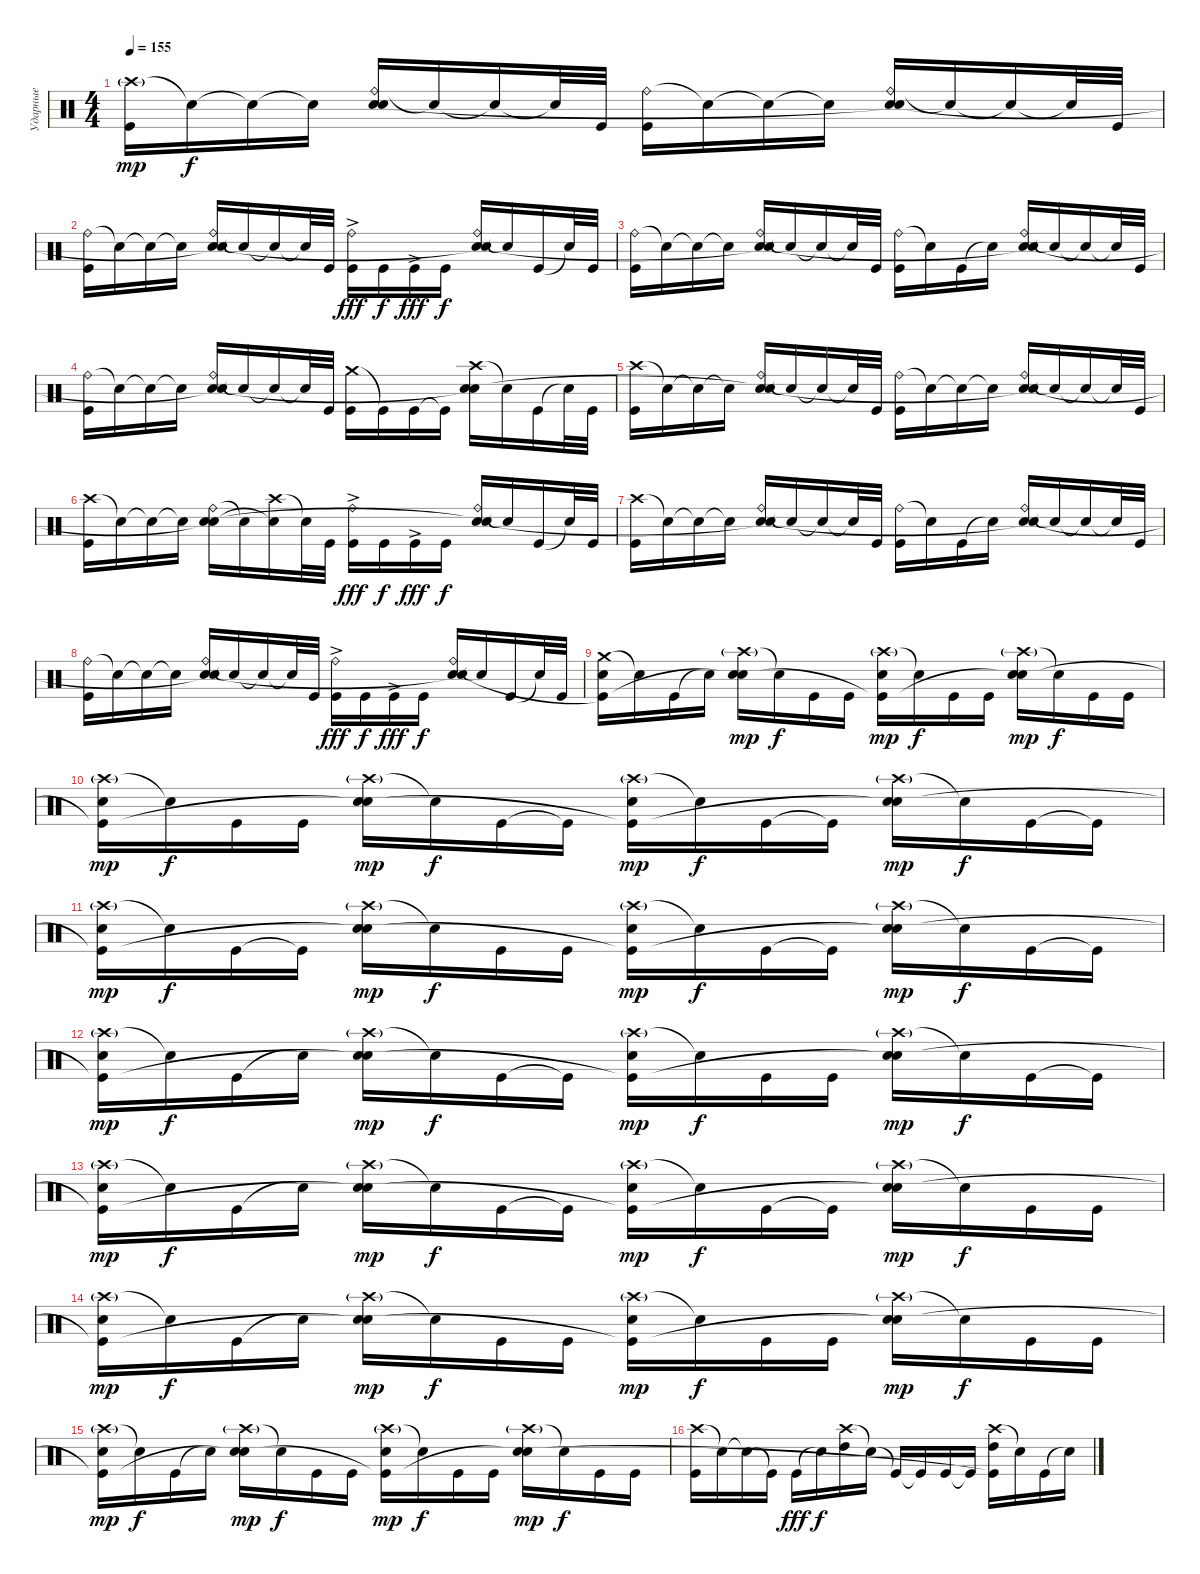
\track ("Ударные" "Ударные") {instrument percussion}
\staff {score}
\articulation defaults
\ts (4 4)
\tempo 155
\clef neutral
\ks c
("Crash high (hit)"{g} "Kick (hit)").16{dy mp} "Snare (hit)"{t}.16{dy f} "Snare (hit)"{t}.16 "Snare (hit)"{t}.16 ("Ride (bell)" "Electric Snare (hit)" "Snare (hit)"{t}).16 "Snare (hit)"{t}.16 "Snare (hit)"{t}.16 "Snare (hit)"{t}.32 "Kick (hit)".32 ("Ride (bell)" "Kick (hit)").16 "Snare (hit)"{t}.16 "Snare (hit)"{t}.16 "Snare (hit)"{t}.16 ("Ride (bell)" "Electric Snare (hit)" "Snare (hit)"{t}).16 "Snare (hit)"{t}.16 "Snare (hit)"{t}.16 "Snare (hit)"{t}.32 "Kick (hit)".32 |
("Ride (bell)" "Kick (hit)").16 "Snare (hit)"{t}.16 "Snare (hit)"{t}.16 "Snare (hit)"{t}.16 ("Ride (bell)" "Electric Snare (hit)" "Snare (hit)"{t}).16 "Snare (hit)"{t}.16 "Snare (hit)"{t}.16 "Snare (hit)"{t}.32 "Kick (hit)".32 ("Ride (bell)" "Kick (hit)"{ac}).16{dy fff} "Kick (hit)".16{dy f} "Kick (hit)"{ac}.16{dy fff} "Kick (hit)".16{dy f} ("Ride (bell)" "Electric Snare (hit)" "Snare (hit)"{t}).16 "Snare (hit)"{t}.16 "Kick (hit)".16 "Snare (hit)"{t}.32 "Kick (hit)".32 |
("Ride (bell)" "Kick (hit)").16 "Snare (hit)"{t}.16 "Snare (hit)"{t}.16 "Snare (hit)"{t}.16 ("Ride (bell)" "Electric Snare (hit)" "Snare (hit)"{t}).16 "Snare (hit)"{t}.16 "Snare (hit)"{t}.16 "Snare (hit)"{t}.32 "Kick (hit)".32 ("Ride (bell)" "Kick (hit)").16 "Snare (hit)"{t}.16 "Kick (hit)".16 "Snare (hit)"{t}.16 ("Ride (bell)" "Electric Snare (hit)" "Snare (hit)"{t}).16 "Snare (hit)"{t}.16 "Snare (hit)"{t}.16 "Snare (hit)"{t}.32 "Kick (hit)".32 |
("Ride (bell)" "Kick (hit)").16 "Snare (hit)"{t}.16 "Snare (hit)"{t}.16 "Snare (hit)"{t}.16 ("Ride (bell)" "Electric Snare (hit)" "Snare (hit)"{t}).16 "Snare (hit)"{t}.16 "Snare (hit)"{t}.16 "Snare (hit)"{t}.32 "Kick (hit)".32 ("Crash medium (hit)" "Kick (hit)").16 "Kick (hit)"{t}.16 "Kick (hit)".16 "Kick (hit)"{t}.16 ("Crash high (hit)" "Electric Snare (hit)" "Snare (hit)"{t}).16 "Snare (hit)"{t}.16 "Kick (hit)".16 "Snare (hit)"{t}.32 "Kick (hit)".32 |
("Crash high (hit)" "Kick (hit)").16 "Snare (hit)"{t}.16 "Snare (hit)"{t}.16 "Snare (hit)"{t}.16 ("Ride (bell)" "Electric Snare (hit)" "Snare (hit)"{t}).16 "Snare (hit)"{t}.16 "Snare (hit)"{t}.16 "Snare (hit)"{t}.32 "Kick (hit)".32 ("Ride (bell)" "Kick (hit)").16 "Snare (hit)"{t}.16 "Snare (hit)"{t}.16 "Snare (hit)"{t}.16 ("Ride (bell)" "Electric Snare (hit)" "Snare (hit)"{t}).16 "Snare (hit)"{t}.16 "Snare (hit)"{t}.16 "Snare (hit)"{t}.32 "Kick (hit)".32 |
("Crash high (hit)" "Kick (hit)").16 "Snare (hit)"{t}.16 "Snare (hit)"{t}.16 "Snare (hit)"{t}.16 ("Ride (bell)" "Electric Snare (hit)" "Snare (hit)"{t}).16 "Snare (hit)"{t}.16 ("Crash high (hit)" "Snare (hit)"{t}).16 "Snare (hit)"{t}.32 "Kick (hit)".32 ("Ride (bell)" "Kick (hit)"{ac}).16{dy fff} "Kick (hit)".16{dy f} "Kick (hit)"{ac}.16{dy fff} "Kick (hit)".16{dy f} ("Ride (bell)" "Electric Snare (hit)" "Snare (hit)"{t}).16 "Snare (hit)"{t}.16 "Kick (hit)".16 "Snare (hit)"{t}.32 "Kick (hit)".32 |
("Crash high (hit)" "Kick (hit)").16 "Snare (hit)"{t}.16 "Snare (hit)"{t}.16 "Snare (hit)"{t}.16 ("Ride (bell)" "Electric Snare (hit)" "Snare (hit)"{t}).16 "Snare (hit)"{t}.16 "Snare (hit)"{t}.16 "Snare (hit)"{t}.32 "Kick (hit)".32 ("Ride (bell)" "Kick (hit)").16 "Snare (hit)"{t}.16 "Kick (hit)".16 "Snare (hit)"{t}.16 ("Ride (bell)" "Electric Snare (hit)" "Snare (hit)"{t}).16 "Snare (hit)"{t}.16 "Snare (hit)"{t}.16 "Snare (hit)"{t}.32 "Kick (hit)".32 |
("Ride (bell)" "Kick (hit)").16 "Snare (hit)"{t}.16 "Snare (hit)"{t}.16 "Snare (hit)"{t}.16 ("Ride (bell)" "Electric Snare (hit)" "Snare (hit)"{t}).16 "Snare (hit)"{t}.16 "Snare (hit)"{t}.16 "Snare (hit)"{t}.32 "Kick (hit)".32 ("Ride (bell)" "Kick (hit)"{ac}).16{dy fff} "Kick (hit)".16{dy f} "Kick (hit)"{ac}.16{dy fff} "Kick (hit)".16{dy f} ("Ride (bell)" "Electric Snare (hit)" "Snare (hit)"{t}).16 "Snare (hit)"{t}.16 "Kick (hit)".16 "Snare (hit)"{t}.32 "Kick (hit)".32 |
("Crash medium (hit)" "Electric Snare (hit)" "Kick (hit)"{t}).16 "Snare (hit)"{t}.16 "Kick (hit)".16 "Snare (hit)"{t}.16 ("Crash high (hit)"{g} "Electric Snare (hit)" "Snare (hit)"{t}).16{dy mp} "Snare (hit)"{t}.16{dy f} "Kick (hit)".16 "Kick (hit)".16 ("Crash high (hit)"{g} "Electric Snare (hit)" "Kick (hit)"{t}).16{dy mp} "Snare (hit)"{t}.16{dy f} "Kick (hit)".16 "Kick (hit)".16 ("Crash high (hit)"{g} "Electric Snare (hit)" "Snare (hit)"{t}).16{dy mp} "Snare (hit)"{t}.16{dy f} "Kick (hit)".16 "Kick (hit)".16 |
("Crash high (hit)"{g} "Electric Snare (hit)" "Kick (hit)"{t}).16{dy mp} "Snare (hit)"{t}.16{dy f} "Kick (hit)".16 "Kick (hit)".16 ("Crash high (hit)"{g} "Electric Snare (hit)" "Snare (hit)"{t}).16{dy mp} "Snare (hit)"{t}.16{dy f} "Kick (hit)".16 "Kick (hit)"{t}.16 ("Crash high (hit)"{g} "Electric Snare (hit)" "Kick (hit)"{t}).16{dy mp} "Snare (hit)"{t}.16{dy f} "Kick (hit)".16 "Kick (hit)"{t}.16 ("Crash high (hit)"{g} "Electric Snare (hit)" "Snare (hit)"{t}).16{dy mp} "Snare (hit)"{t}.16{dy f} "Kick (hit)".16 "Kick (hit)"{t}.16 |
("Crash high (hit)"{g} "Electric Snare (hit)" "Kick (hit)"{t}).16{dy mp} "Snare (hit)"{t}.16{dy f} "Kick (hit)".16 "Kick (hit)"{t}.16 ("Crash high (hit)"{g} "Electric Snare (hit)" "Snare (hit)"{t}).16{dy mp} "Snare (hit)"{t}.16{dy f} "Kick (hit)".16 "Kick (hit)".16 ("Crash high (hit)"{g} "Electric Snare (hit)" "Kick (hit)"{t}).16{dy mp} "Snare (hit)"{t}.16{dy f} "Kick (hit)".16 "Kick (hit)"{t}.16 ("Crash high (hit)"{g} "Electric Snare (hit)" "Snare (hit)"{t}).16{dy mp} "Snare (hit)"{t}.16{dy f} "Kick (hit)".16 "Kick (hit)"{t}.16 |
("Crash high (hit)"{g} "Electric Snare (hit)" "Kick (hit)"{t}).16{dy mp} "Snare (hit)"{t}.16{dy f} "Kick (hit)".16 "Snare (hit)"{t}.16 ("Crash high (hit)"{g} "Electric Snare (hit)" "Snare (hit)"{t}).16{dy mp} "Snare (hit)"{t}.16{dy f} "Kick (hit)".16 "Kick (hit)"{t}.16 ("Crash high (hit)"{g} "Electric Snare (hit)" "Kick (hit)"{t}).16{dy mp} "Snare (hit)"{t}.16{dy f} "Kick (hit)".16 "Kick (hit)".16 ("Crash high (hit)"{g} "Electric Snare (hit)" "Snare (hit)"{t}).16{dy mp} "Snare (hit)"{t}.16{dy f} "Kick (hit)".16 "Kick (hit)"{t}.16 |
("Crash high (hit)"{g} "Electric Snare (hit)" "Kick (hit)"{t}).16{dy mp} "Snare (hit)"{t}.16{dy f} "Kick (hit)".16 "Snare (hit)"{t}.16 ("Crash high (hit)"{g} "Electric Snare (hit)" "Snare (hit)"{t}).16{dy mp} "Snare (hit)"{t}.16{dy f} "Kick (hit)".16 "Kick (hit)"{t}.16 ("Crash high (hit)"{g} "Electric Snare (hit)" "Kick (hit)"{t}).16{dy mp} "Snare (hit)"{t}.16{dy f} "Kick (hit)".16 "Kick (hit)"{t}.16 ("Crash high (hit)"{g} "Electric Snare (hit)" "Snare (hit)"{t}).16{dy mp} "Snare (hit)"{t}.16{dy f} "Kick (hit)".16 "Kick (hit)".16 |
("Crash high (hit)"{g} "Electric Snare (hit)" "Kick (hit)"{t}).16{dy mp} "Snare (hit)"{t}.16{dy f} "Kick (hit)".16 "Snare (hit)"{t}.16 ("Crash high (hit)"{g} "Electric Snare (hit)" "Snare (hit)"{t}).16{dy mp} "Snare (hit)"{t}.16{dy f} "Kick (hit)".16 "Kick (hit)".16 ("Crash high (hit)"{g} "Electric Snare (hit)" "Kick (hit)"{t}).16{dy mp} "Snare (hit)"{t}.16{dy f} "Kick (hit)".16 "Kick (hit)".16 ("Crash high (hit)"{g} "Electric Snare (hit)" "Snare (hit)"{t}).16{dy mp} "Snare (hit)"{t}.16{dy f} "Kick (hit)".16 "Kick (hit)".16 |
("Crash high (hit)"{g} "Electric Snare (hit)" "Kick (hit)"{t}).16{dy mp} "Snare (hit)"{t}.16{dy f} "Kick (hit)".16 "Snare (hit)"{t}.16 ("Crash high (hit)"{g} "Electric Snare (hit)" "Snare (hit)"{t}).16{dy mp} "Snare (hit)"{t}.16{dy f} "Kick (hit)".16 "Kick (hit)".16 ("Crash high (hit)"{g} "Electric Snare (hit)" "Kick (hit)"{t}).16{dy mp} "Snare (hit)"{t}.16{dy f} "Kick (hit)".16 "Kick (hit)".16 ("Crash high (hit)"{g} "Electric Snare (hit)" "Snare (hit)"{t}).16{dy mp} "Snare (hit)"{t}.16{dy f} "Kick (hit)".16 "Kick (hit)".16 |
("Crash high (hit)" "Kick (hit)").16 "Snare (hit)"{t}.16 "Snare (hit)"{t}.16 "Kick (hit)"{t}.16 "Kick (hit)".16{dy fff} "Snare (hit)"{t}.16{dy f} ("Crash high (hit)" "High Tom (hit)").16 "Snare (hit)"{t}.16 "Kick (hit)"{t}.16 "Kick (hit)"{t}.16 "Kick (hit)".16 "Kick (hit)"{t}.16 ("Crash high (hit)" "High Tom (hit)" "Kick (hit)"{t}).16 "Snare (hit)"{t}.16 "Kick (hit)".16 "Snare (hit)"{t}.16
